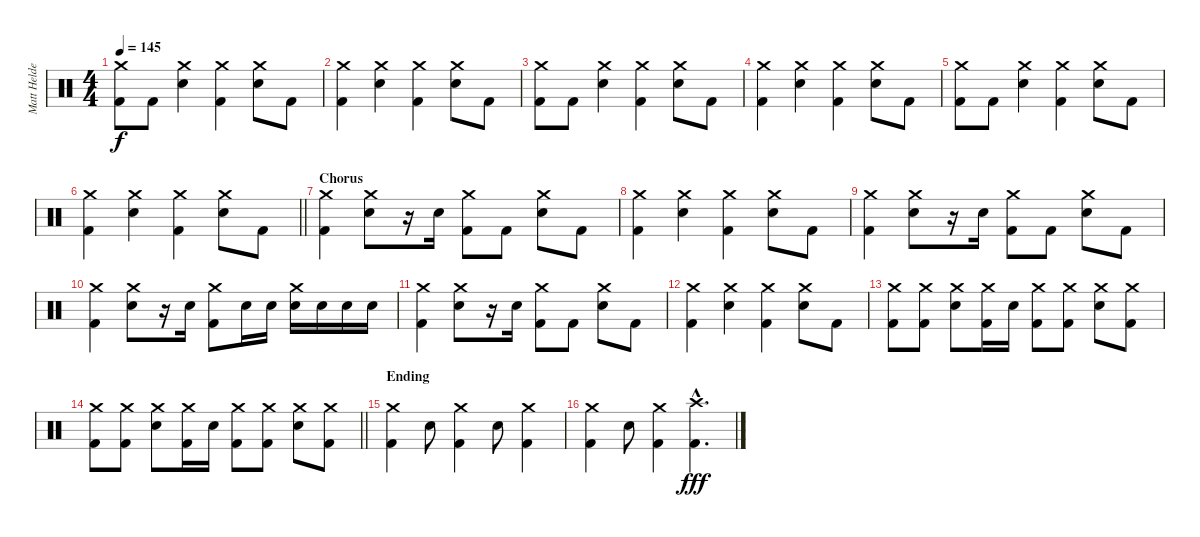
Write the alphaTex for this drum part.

\track ("Matt Helders" "Matt Helde") {instrument percussion}
\staff {score}
\articulation defaults
\ts (4 4)
\tempo 145
\clef neutral
\ks c
("Kick (hit) 2" "Crash medium (hit)").8{dy f} "Kick (hit) 2".8 ("Electric Snare (hit)" "Crash medium (hit)").4 ("Kick (hit) 2" "Crash medium (hit)").4 ("Electric Snare (hit)" "Crash medium (hit)").8 "Kick (hit) 2".8 |
("Kick (hit) 2" "Crash medium (hit)").4 ("Electric Snare (hit)" "Crash medium (hit)").4 ("Kick (hit) 2" "Crash medium (hit)").4 ("Electric Snare (hit)" "Crash medium (hit)").8 "Kick (hit) 2".8 |
("Kick (hit) 2" "Crash medium (hit)").8 "Kick (hit) 2".8 ("Electric Snare (hit)" "Crash medium (hit)").4 ("Kick (hit) 2" "Crash medium (hit)").4 ("Electric Snare (hit)" "Crash medium (hit)").8 "Kick (hit) 2".8 |
("Kick (hit) 2" "Crash medium (hit)").4 ("Electric Snare (hit)" "Crash medium (hit)").4 ("Kick (hit) 2" "Crash medium (hit)").4 ("Electric Snare (hit)" "Crash medium (hit)").8 "Kick (hit) 2".8 |
("Kick (hit) 2" "Crash medium (hit)").8 "Kick (hit) 2".8 ("Electric Snare (hit)" "Crash medium (hit)").4 ("Kick (hit) 2" "Crash medium (hit)").4 ("Electric Snare (hit)" "Crash medium (hit)").8 "Kick (hit) 2".8 |
\barLineRight lightlight
("Kick (hit) 2" "Crash medium (hit)").4 ("Electric Snare (hit)" "Crash medium (hit)").4 ("Kick (hit) 2" "Crash medium (hit)").4 ("Electric Snare (hit)" "Crash medium (hit)").8 "Kick (hit) 2".8 |
\section ("" "Chorus")
("Kick (hit) 2" "Crash medium (hit)").4 ("Electric Snare (hit)" "Crash medium (hit)").8 r.16 "Electric Snare (hit)".16 ("Kick (hit) 2" "Crash medium (hit)").8 "Kick (hit) 2".8 ("Electric Snare (hit)" "Crash medium (hit)").8 "Kick (hit) 2".8 |
("Kick (hit) 2" "Crash medium (hit)").4 ("Electric Snare (hit)" "Crash medium (hit)").4 ("Kick (hit) 2" "Crash medium (hit)").4 ("Electric Snare (hit)" "Crash medium (hit)").8 "Kick (hit) 2".8 |
("Kick (hit) 2" "Crash medium (hit)").4 ("Electric Snare (hit)" "Crash medium (hit)").8 r.16 "Electric Snare (hit)".16 ("Kick (hit) 2" "Crash medium (hit)").8 "Kick (hit) 2".8 ("Electric Snare (hit)" "Crash medium (hit)").8 "Kick (hit) 2".8 |
("Kick (hit) 2" "Crash medium (hit)").4 ("Electric Snare (hit)" "Crash medium (hit)").8 r.16 "Electric Snare (hit)".16 ("Kick (hit) 2" "Crash medium (hit)").8 "Electric Snare (hit)".16 "Electric Snare (hit)".16 ("Electric Snare (hit)" "Crash medium (hit)").16 "Electric Snare (hit)".16 "Electric Snare (hit)".16 "Electric Snare (hit)".16 |
("Kick (hit) 2" "Crash medium (hit)").4 ("Electric Snare (hit)" "Crash medium (hit)").8 r.16 "Electric Snare (hit)".16 ("Kick (hit) 2" "Crash medium (hit)").8 "Kick (hit) 2".8 ("Electric Snare (hit)" "Crash medium (hit)").8 "Kick (hit) 2".8 |
("Kick (hit) 2" "Crash medium (hit)").4 ("Electric Snare (hit)" "Crash medium (hit)").4 ("Kick (hit) 2" "Crash medium (hit)").4 ("Electric Snare (hit)" "Crash medium (hit)").8 "Kick (hit) 2".8 |
("Kick (hit) 2" "Crash medium (hit)").8 ("Kick (hit) 2" "Crash medium (hit)").8 ("Electric Snare (hit)" "Crash medium (hit)").8 ("Kick (hit) 2" "Crash medium (hit)").16 "Electric Snare (hit)".16 ("Kick (hit) 2" "Crash medium (hit)").8 ("Kick (hit) 2" "Crash medium (hit)").8 ("Electric Snare (hit)" "Crash medium (hit)").8 ("Kick (hit) 2" "Crash medium (hit)").8 |
\barLineRight lightlight
("Kick (hit) 2" "Crash medium (hit)").8 ("Kick (hit) 2" "Crash medium (hit)").8 ("Electric Snare (hit)" "Crash medium (hit)").8 ("Kick (hit) 2" "Crash medium (hit)").16 "Electric Snare (hit)".16 ("Kick (hit) 2" "Crash medium (hit)").8 ("Kick (hit) 2" "Crash medium (hit)").8 ("Electric Snare (hit)" "Crash medium (hit)").8 ("Kick (hit) 2" "Crash medium (hit)").8 |
\section ("" "Ending")
("Kick (hit) 2" "Crash medium (hit)").4 "Electric Snare (hit)".8 ("Kick (hit) 2" "Crash medium (hit)").4 "Electric Snare (hit)".8 ("Kick (hit) 2" "Crash medium (hit)").4 |
("Kick (hit) 2" "Crash medium (hit)").4 "Electric Snare (hit)".8 ("Kick (hit) 2" "Crash medium (hit)").4 ("Kick (hit) 2" "Crash high (hit)"{hac}).4{d dy fff}
